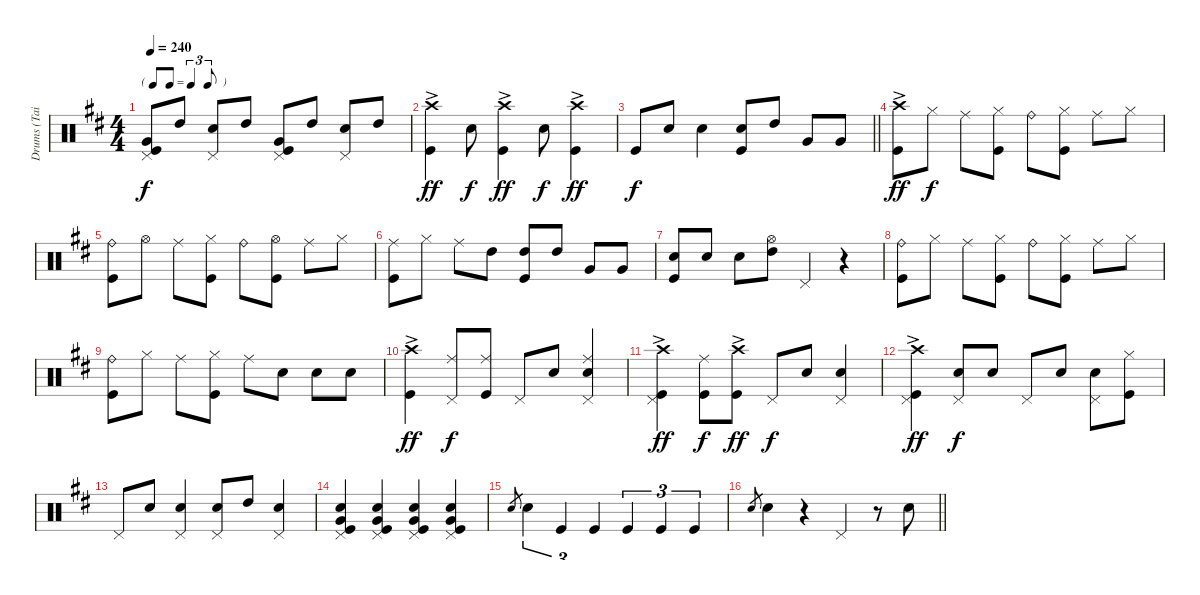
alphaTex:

\track ("Drums (Tainaka Ritsu)" "Drums (Tai") {instrument percussion}
\staff {score}
\articulation defaults
\ts (4 4)
\tf triplet8th
\tempo 240
\clef neutral
\ks d
("Kick (hit)" "Pedal Hi-Hat (hit)" "Very Low Tom (hit)").8{dy f} "High Tom (hit)".8 ("Snare (hit) 2" "Pedal Hi-Hat (hit)").8 "High Tom (hit)".8 ("Kick (hit)" "Pedal Hi-Hat (hit)" "Very Low Tom (hit)").8 "High Tom (hit)".8 ("Snare (hit) 2" "Pedal Hi-Hat (hit)").8 "High Tom (hit)".8 |
("Kick (hit)" "Crash high (hit)"{ac}).4{dy ff} "Snare (hit) 2".8{dy f} ("Crash high (hit)"{ac} "Kick (hit)").4{dy ff} "Snare (hit) 2".8{dy f} ("Kick (hit)" "Crash high (hit)"{ac}).4{dy ff} |
\barLineRight lightlight "Kick (hit)".8{dy f} "Snare (hit) 2".8 "Snare (hit) 2".4
("Kick (hit)" "Snare (hit) 2").8 "High Tom (hit)".8 "Very Low Tom (hit)".8 "Very Low Tom (hit)".8 |
("Crash high (hit)"{ac} "Kick (hit)").8{dy ff} "Hi-Hat (closed)".8{dy f} "Ride (middle)".8 ("Hi-Hat (closed)" "Kick (hit)").8 "Ride (bell)".8 ("Hi-Hat (closed)" "Kick (hit)").8 "Ride (middle)".8 "Hi-Hat (closed)".8 |
("Ride (bell)" "Kick (hit)").8 "Hi-Hat (open)".8 "Ride (middle)".8 ("Hi-Hat (closed)" "Kick (hit)").8 "Ride (bell)".8 ("Hi-Hat (open)" "Kick (hit)").8 "Ride (middle)".8 "Hi-Hat (closed)".8 |
("Ride (middle)" "Kick (hit)").8 "Hi-Hat (closed)".8 "Ride (middle)".8 "High Tom (hit)".8 ("High Tom (hit)" "Kick (hit)").8 "High Tom (hit)".8 "Very Low Tom (hit)".8 "Very Low Tom (hit)".8 |
("Snare (hit) 2" "Kick (hit)").8 "Snare (hit) 2".8 "Snare (hit) 2".8 ("High Tom (hit)" "Hi-Hat (open)").8 "Pedal Hi-Hat (hit)".4 r.4 |
("Ride (bell)" "Kick (hit)").8 "Hi-Hat (closed)".8 "Ride (middle)".8 ("Kick (hit)" "Hi-Hat (closed)").8 "Ride (bell)".8 ("Hi-Hat (closed)" "Kick (hit)").8 "Ride (middle)".8 "Hi-Hat (closed)".8 |
("Ride (bell)" "Kick (hit)").8 "Hi-Hat (closed)".8 "Ride (middle)".8 ("Hi-Hat (closed)" "Kick (hit)").8 "Ride (middle)".8 "Snare (hit) 2".8 "Snare (hit) 2".8 "Snare (hit) 2".8 |
("Crash high (hit)"{ac} "Kick (hit)").4{dy ff} ("Pedal Hi-Hat (hit)" "Ride (middle)").8{dy f} ("Kick (hit)" "Ride (middle)").8 "Pedal Hi-Hat (hit)".8 "Snare (hit) 2".8 ("Snare (hit) 2" "Pedal Hi-Hat (hit)" "Ride (middle)").4 |
("Crash high (hit)"{ac} "Pedal Hi-Hat (hit)" "Kick (hit)").4{dy ff} ("Kick (hit)" "Ride (middle)").8{dy f} ("Crash high (hit)"{ac} "Kick (hit)").8{dy ff} "Pedal Hi-Hat (hit)".8{dy f} "Snare (hit) 2".8 ("Snare (hit) 2" "Pedal Hi-Hat (hit)").4 |
("Crash high (hit)"{ac} "Kick (hit)" "Pedal Hi-Hat (hit)").4{dy ff} ("Snare (hit) 2" "Pedal Hi-Hat (hit)").8{dy f} "Snare (hit) 2".8 "Pedal Hi-Hat (hit)".8 "Snare (hit) 2".8 ("Snare (hit) 2" "Pedal Hi-Hat (hit)").8 ("Hi-Hat (closed)" "Kick (hit)").8 |
"Pedal Hi-Hat (hit)".8 "Snare (hit) 2".8 ("Snare (hit) 2" "Pedal Hi-Hat (hit)").4 ("Pedal Hi-Hat (hit)" "Snare (hit) 2").8 "High Tom (hit)".8 ("Snare (hit) 2" "Pedal Hi-Hat (hit)").4 |
("Snare (hit) 2" "Kick (hit)" "Very Low Tom (hit)" "Pedal Hi-Hat (hit)").4 ("Snare (hit) 2" "Kick (hit)" "Very Low Tom (hit)" "Pedal Hi-Hat (hit)").4 ("Snare (hit) 2" "Kick (hit)" "Very Low Tom (hit)" "Pedal Hi-Hat (hit)").4 ("Snare (hit) 2" "Kick (hit)" "Very Low Tom (hit)" "Pedal Hi-Hat (hit)").4 |
"Snare (hit) 2".8{gr} "Snare (hit) 2".4{tu (3 2)} "Kick (hit)".4{tu (3 2)} "Kick (hit)".4{tu (3 2)} "Kick (hit)".4{tu (3 2)} "Kick (hit)".4{tu (3 2)} "Kick (hit)".4{tu (3 2)} |
\barLineRight lightlight "Snare (hit) 2".8{gr} "Snare (hit) 2".4
r.4 "Pedal Hi-Hat (hit)".4 r.8 "Snare (hit) 2".8
